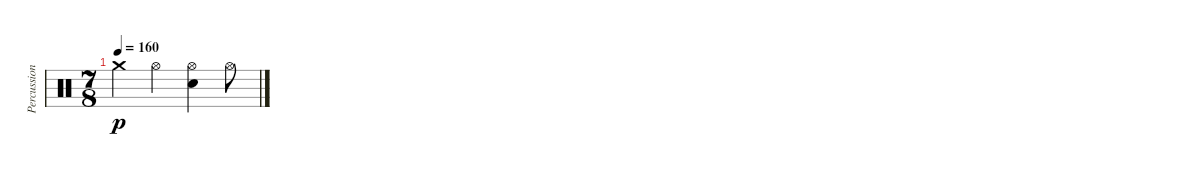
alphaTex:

\track ("Percussion" "Percussion") {instrument percussion}
\staff {score}
\articulation defaults
\ts (7 8)
\tempo 160
\clef neutral
\ks c "Crash medium (hit)".4{dy p} "Hi-Hat (open)".4
("Hi-Hat (open)" "Snare (hit) 2").4 "Hi-Hat (open)".8
